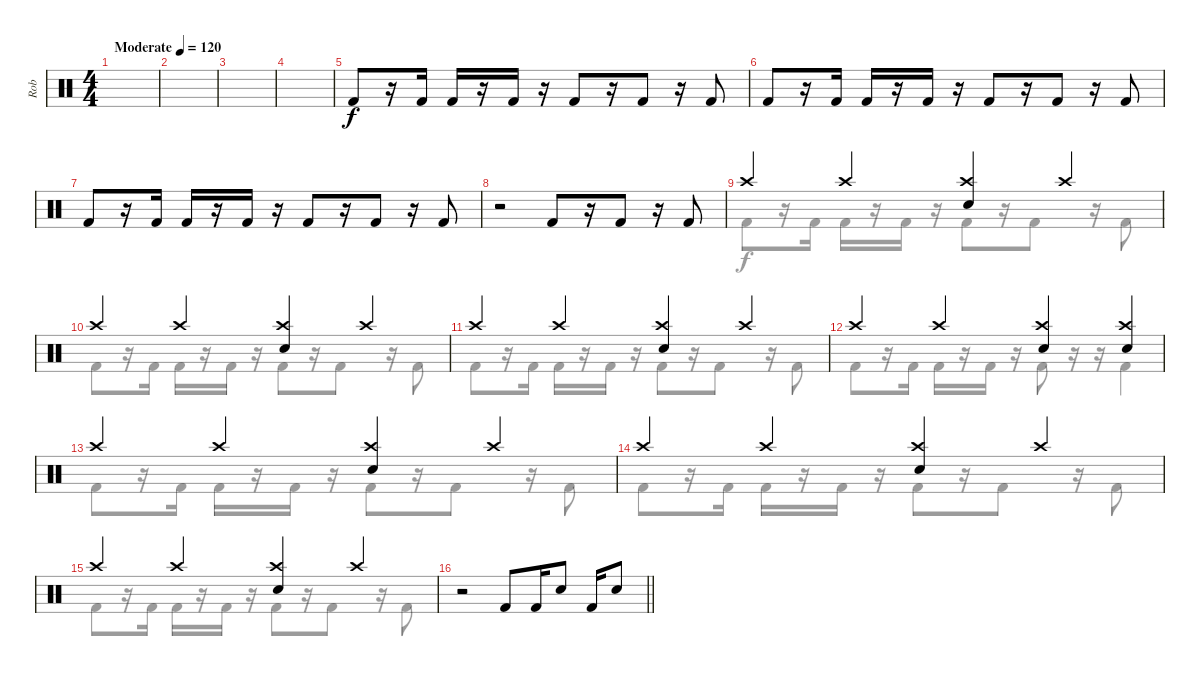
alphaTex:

\track ("Rob" "Rob") {instrument percussion}
\staff {score}
\articulation defaults
\voice
\ts (4 4)
\tempo (120 "Moderate")
\clef neutral
\ks c
|
|
|
|
"Kick (hit) 2".8 r.16 "Kick (hit) 2".16 "Kick (hit) 2".16 r.16 "Kick (hit) 2".16 r.16 "Kick (hit) 2".8 r.16 "Kick (hit) 2".8 r.16 "Kick (hit) 2".8 |
"Kick (hit) 2".8 r.16 "Kick (hit) 2".16 "Kick (hit) 2".16 r.16 "Kick (hit) 2".16 r.16 "Kick (hit) 2".8 r.16 "Kick (hit) 2".8 r.16 "Kick (hit) 2".8 |
"Kick (hit) 2".8 r.16 "Kick (hit) 2".16 "Kick (hit) 2".16 r.16 "Kick (hit) 2".16 r.16 "Kick (hit) 2".8 r.16 "Kick (hit) 2".8 r.16 "Kick (hit) 2".8 |
r.2 "Kick (hit) 2".8 r.16 "Kick (hit) 2".8 r.16 "Kick (hit) 2".8 |
"Crash high (hit)".4 "Crash high (hit)".4 ("Crash high (hit)" "Snare (hit) 2").4 "Crash high (hit)".4 |
"Crash high (hit)".4 "Crash high (hit)".4 ("Crash high (hit)" "Snare (hit) 2").4 "Crash high (hit)".4 |
"Crash high (hit)".4 "Crash high (hit)".4 ("Crash high (hit)" "Snare (hit) 2").4 "Crash high (hit)".4 |
"Crash high (hit)".4 "Crash high (hit)".4 ("Crash high (hit)" "Snare (hit) 2").4 ("Crash high (hit)" "Snare (hit) 2").4 |
"Crash high (hit)".4 "Crash high (hit)".4 ("Crash high (hit)" "Snare (hit) 2").4 "Crash high (hit)".4 |
"Crash high (hit)".4 "Crash high (hit)".4 ("Crash high (hit)" "Snare (hit) 2").4 "Crash high (hit)".4 |
"Crash high (hit)".4 "Crash high (hit)".4 ("Crash high (hit)" "Snare (hit) 2").4 "Crash high (hit)".4 |
\barLineRight lightlight
r.2 "Kick (hit) 2".8 "Kick (hit) 2".16 "Snare (hit) 2".8 "Kick (hit) 2".16 "Snare (hit) 2".8
\voice
\clef neutral
\ottava regular
\simile none
\ks c
|
|
|
|
|
|
|
|
"Kick (hit) 2".8 r.16 "Kick (hit) 2".16 "Kick (hit) 2".16 r.16 "Kick (hit) 2".16 r.16 "Kick (hit) 2".8 r.16 "Kick (hit) 2".8 r.16 "Kick (hit) 2".8 |
"Kick (hit) 2".8 r.16 "Kick (hit) 2".16 "Kick (hit) 2".16 r.16 "Kick (hit) 2".16 r.16 "Kick (hit) 2".8 r.16 "Kick (hit) 2".8 r.16 "Kick (hit) 2".8 |
"Kick (hit) 2".8 r.16 "Kick (hit) 2".16 "Kick (hit) 2".16 r.16 "Kick (hit) 2".16 r.16 "Kick (hit) 2".8 r.16 "Kick (hit) 2".8 r.16 "Kick (hit) 2".8 |
"Kick (hit) 2".8 r.16 "Kick (hit) 2".16 "Kick (hit) 2".16 r.16 "Kick (hit) 2".16 r.16 "Kick (hit) 2".8 r.16 r.16 "Kick (hit) 2".4 |
"Kick (hit) 2".8 r.16 "Kick (hit) 2".16 "Kick (hit) 2".16 r.16 "Kick (hit) 2".16 r.16 "Kick (hit) 2".8 r.16 "Kick (hit) 2".8 r.16 "Kick (hit) 2".8 |
"Kick (hit) 2".8 r.16 "Kick (hit) 2".16 "Kick (hit) 2".16 r.16 "Kick (hit) 2".16 r.16 "Kick (hit) 2".8 r.16 "Kick (hit) 2".8 r.16 "Kick (hit) 2".8 |
"Kick (hit) 2".8 r.16 "Kick (hit) 2".16 "Kick (hit) 2".16 r.16 "Kick (hit) 2".16 r.16 "Kick (hit) 2".8 r.16 "Kick (hit) 2".8 r.16 "Kick (hit) 2".8 |
\barLineRight lightlight
